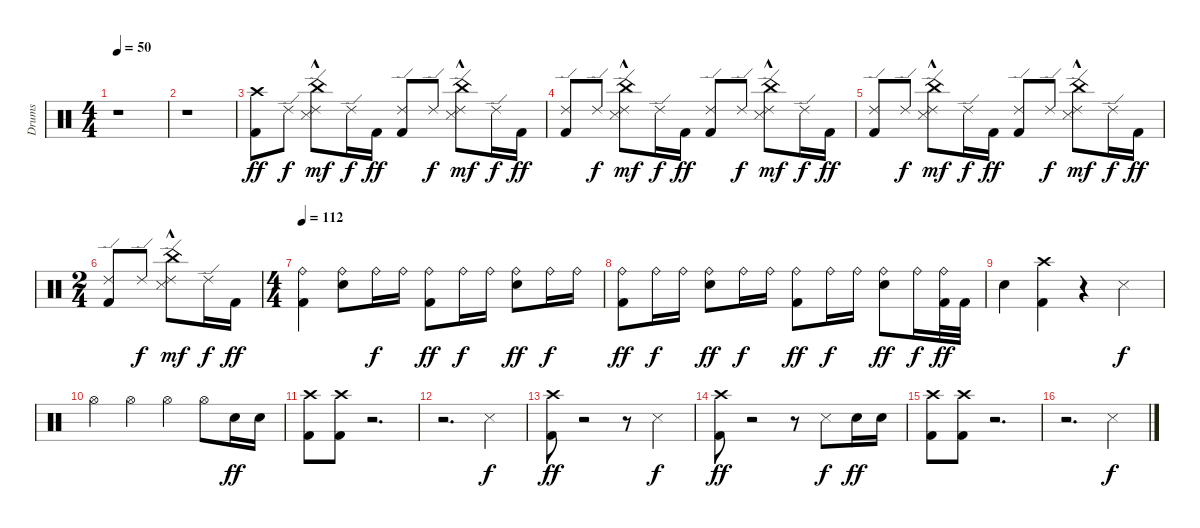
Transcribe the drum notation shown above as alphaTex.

\track ("Drums" "Drums") {instrument percussion}
\staff {score}
\articulation defaults
\ts (4 4)
\tempo 50
\clef neutral
\ks c
r.1{dy mp} |
r.1 |
("Crash high (hit)" "Kick (hit) 2").8{dy ff} "Ride (edge) 2".8{dy f} ("Ride (edge) 2" "Snare (side stick) 3"{hac} "China (hit)"{hac}).8{dy mf} "Ride (edge) 2".16{dy f} "Kick (hit) 2".16{dy ff} ("Ride (edge) 2" "Kick (hit) 2").8 "Ride (edge) 2".8{dy f} ("Ride (edge) 2" "Snare (side stick) 3"{hac} "China (hit)").8{dy mf} "Ride (edge) 2".16{dy f} "Kick (hit) 2".16{dy ff} |
("Ride (edge) 2" "Kick (hit) 2").8 "Ride (edge) 2".8{dy f} ("Ride (edge) 2" "Snare (side stick) 3"{hac} "China (hit)"{hac}).8{dy mf} "Ride (edge) 2".16{dy f} "Kick (hit) 2".16{dy ff} ("Ride (edge) 2" "Kick (hit) 2").8 "Ride (edge) 2".8{dy f} ("Ride (edge) 2" "Snare (side stick) 3"{hac} "China (hit)").8{dy mf} "Ride (edge) 2".16{dy f} "Kick (hit) 2".16{dy ff} |
("Ride (edge) 2" "Kick (hit) 2").8 "Ride (edge) 2".8{dy f} ("Ride (edge) 2" "Snare (side stick) 3"{hac} "China (hit)"{hac}).8{dy mf} "Ride (edge) 2".16{dy f} "Kick (hit) 2".16{dy ff} ("Ride (edge) 2" "Kick (hit) 2").8 "Ride (edge) 2".8{dy f} ("Ride (edge) 2" "Snare (side stick) 3"{hac} "China (hit)").8{dy mf} "Ride (edge) 2".16{dy f} "Kick (hit) 2".16{dy ff} |
\ts (2 4)
("Ride (edge) 2" "Kick (hit) 2").8 "Ride (edge) 2".8{dy f} ("Ride (edge) 2" "Snare (side stick) 3"{hac} "China (hit)"{hac}).8{dy mf} "Ride (edge) 2".16{dy f} "Kick (hit) 2".16{dy ff} |
\ts (4 4)
\tempo 112
("Ride (bell)" "Kick (hit) 2").4 ("Ride (bell)" "Electric Snare (hit)").8 "Ride (bell)".16{dy f} "Ride (bell)".16 ("Ride (bell)" "Kick (hit) 2").8{dy ff} "Ride (bell)".16{dy f} "Ride (bell)".16 ("Ride (bell)" "Electric Snare (hit)").8{dy ff} "Ride (bell)".16{dy f} "Ride (bell)".16 |
("Ride (bell)" "Kick (hit) 2").8{dy ff} "Ride (bell)".16{dy f} "Ride (bell)".16 ("Ride (bell)" "Electric Snare (hit)").8{dy ff} "Ride (bell)".16{dy f} "Ride (bell)".16 ("Ride (bell)" "Kick (hit) 2").8{dy ff} "Ride (bell)".16{dy f} "Ride (bell)".16 ("Ride (bell)" "Electric Snare (hit)").8{dy ff} "Ride (bell)".16{dy f} ("Ride (bell)" "Kick (hit) 2").32{dy ff} "Kick (hit) 2".32 |
"Electric Snare (hit)".4 ("Crash high (hit)" "Kick (hit) 2").4 r.4 "Snare (side stick) 3".4{dy f} |
"Hi-Hat (open)".4 "Hi-Hat (open)".4 "Hi-Hat (open)".4 "Hi-Hat (open)".8 "Electric Snare (hit)".16{dy ff} "Electric Snare (hit)".16 |
("Crash high (hit)" "Kick (hit) 2").8 ("Crash high (hit)" "Kick (hit) 2").8 r.2{d} |
r.2{d} "Snare (side stick) 3".4{dy f volume 11} |
("Crash high (hit)" "Kick (hit) 2").8{dy ff} r.2 r.8 "Snare (side stick) 3".4{dy f} |
("Crash high (hit)" "Kick (hit) 2").8{dy ff} r.2 r.8 "Snare (side stick) 3".8{dy f} "Electric Snare (hit)".16{dy ff} "Electric Snare (hit)".16 |
("Crash high (hit)" "Kick (hit) 2").8 ("Crash high (hit)" "Kick (hit) 2").8 r.2{d} |
r.2{d} "Snare (side stick) 3".4{dy f volume 11}
